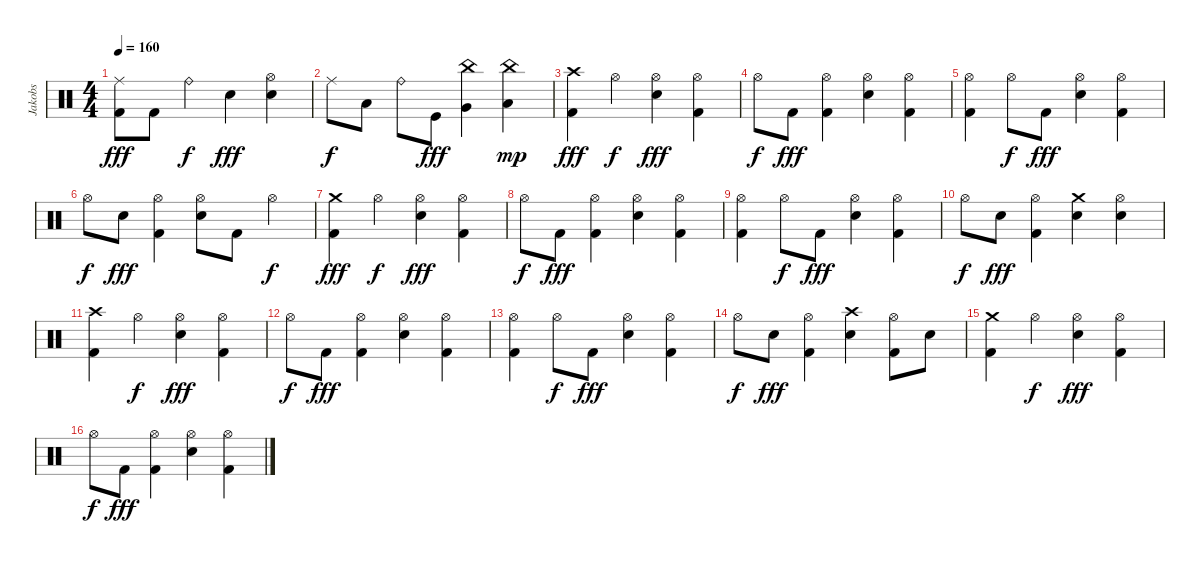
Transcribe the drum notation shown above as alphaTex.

\track ("Jakobs" "Jakobs") {instrument percussion}
\staff {score}
\articulation defaults
\ts (4 4)
\tempo 160
\clef neutral
\ks c
("Ride (middle)" "Kick (hit) 2").8{dy fff} "Kick (hit) 2".8 "Ride (bell)".4{dy f} "Snare (hit) 2".4{dy fff} ("Hi-Hat (open)" "Snare (hit) 2").4 |
"Ride (middle)".8{dy f} "Low Tom (hit)".8 "Ride (bell)".8 "Kick (hit)".8{dy fff} ("China (hit)" "Very Low Tom (hit)").4 ("China (hit)" "Low Floor Tom (hit)").4{dy mp} |
("Crash high (hit)" "Kick (hit) 2").4{dy fff} "Hi-Hat (open)".4{dy f} ("Hi-Hat (open)" "Snare (hit) 2").4{dy fff} ("Hi-Hat (open)" "Kick (hit) 2").4 |
"Hi-Hat (open)".8{dy f} "Kick (hit) 2".8{dy fff} ("Hi-Hat (open)" "Kick (hit) 2").4 ("Hi-Hat (open)" "Snare (hit) 2").4 ("Hi-Hat (open)" "Kick (hit) 2").4 |
("Hi-Hat (open)" "Kick (hit) 2").4 "Hi-Hat (open)".8{dy f} "Kick (hit) 2".8{dy fff} ("Hi-Hat (open)" "Snare (hit) 2").4 ("Hi-Hat (open)" "Kick (hit) 2").4 |
"Hi-Hat (open)".8{dy f} "Snare (hit) 2".8{dy fff} ("Hi-Hat (open)" "Kick (hit) 2").4 ("Hi-Hat (open)" "Snare (hit) 2").8 "Kick (hit) 2".8 "Hi-Hat (open)".4{dy f} |
("Crash medium (hit)" "Kick (hit) 2").4{dy fff} "Hi-Hat (open)".4{dy f} ("Hi-Hat (open)" "Snare (hit) 2").4{dy fff} ("Hi-Hat (open)" "Kick (hit) 2").4 |
"Hi-Hat (open)".8{dy f} "Kick (hit) 2".8{dy fff} ("Hi-Hat (open)" "Kick (hit) 2").4 ("Hi-Hat (open)" "Snare (hit) 2").4 ("Hi-Hat (open)" "Kick (hit) 2").4 |
("Hi-Hat (open)" "Kick (hit) 2").4 "Hi-Hat (open)".8{dy f} "Kick (hit) 2".8{dy fff} ("Hi-Hat (open)" "Snare (hit) 2").4 ("Hi-Hat (open)" "Kick (hit) 2").4 |
"Hi-Hat (open)".8{dy f} "Snare (hit) 2".8{dy fff} ("Hi-Hat (open)" "Kick (hit) 2").4 ("Crash medium (hit)" "Snare (hit) 2").4 ("Hi-Hat (open)" "Snare (hit) 2").4 |
("Crash high (hit)" "Kick (hit) 2").4 "Hi-Hat (open)".4{dy f} ("Hi-Hat (open)" "Snare (hit) 2").4{dy fff} ("Hi-Hat (open)" "Kick (hit) 2").4 |
"Hi-Hat (open)".8{dy f} "Kick (hit) 2".8{dy fff} ("Hi-Hat (open)" "Kick (hit) 2").4 ("Hi-Hat (open)" "Snare (hit) 2").4 ("Hi-Hat (open)" "Kick (hit) 2").4 |
("Hi-Hat (open)" "Kick (hit) 2").4 "Hi-Hat (open)".8{dy f} "Kick (hit) 2".8{dy fff} ("Hi-Hat (open)" "Snare (hit) 2").4 ("Hi-Hat (open)" "Kick (hit) 2").4 |
"Hi-Hat (open)".8{dy f} "Snare (hit) 2".8{dy fff} ("Hi-Hat (open)" "Kick (hit) 2").4 ("Crash high (hit)" "Snare (hit) 2").4 ("Hi-Hat (open)" "Kick (hit) 2").8 "Snare (hit) 2".8 |
("Crash medium (hit)" "Kick (hit) 2").4 "Hi-Hat (open)".4{dy f} ("Hi-Hat (open)" "Snare (hit) 2").4{dy fff} ("Hi-Hat (open)" "Kick (hit) 2").4 |
"Hi-Hat (open)".8{dy f} "Kick (hit) 2".8{dy fff} ("Hi-Hat (open)" "Kick (hit) 2").4 ("Hi-Hat (open)" "Snare (hit) 2").4 ("Hi-Hat (open)" "Kick (hit) 2").4
